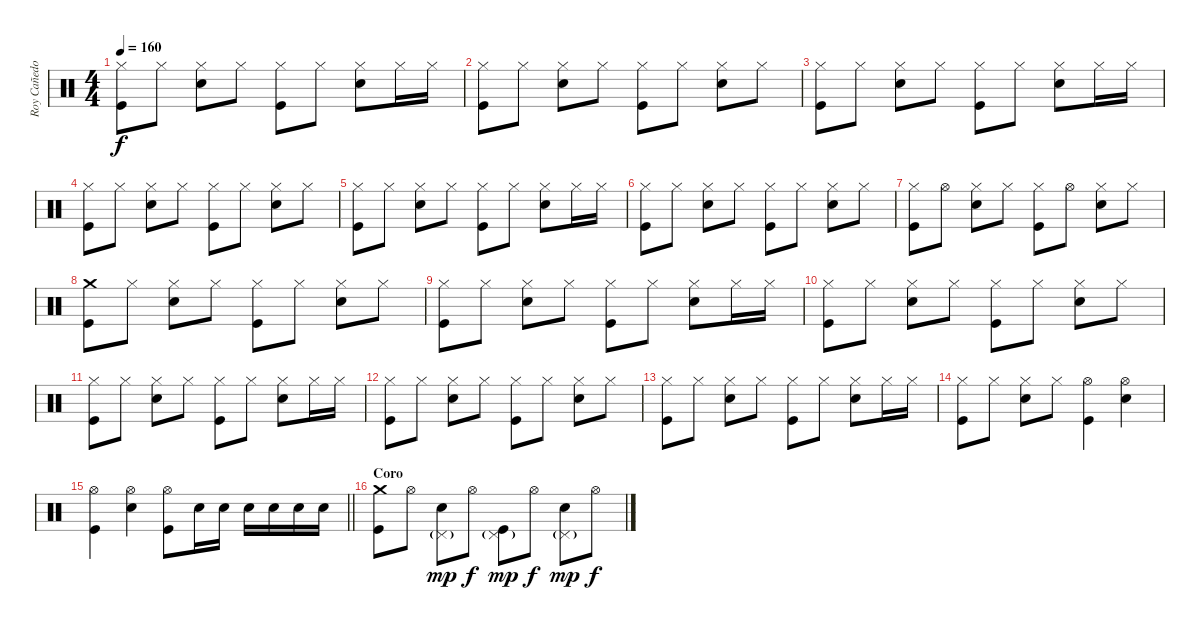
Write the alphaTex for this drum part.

\track ("Roy Cañedo" "Roy Cañedo") {instrument percussion}
\staff {score}
\articulation defaults
\ts (4 4)
\tempo 160
\clef neutral
\ks c
("Hi-Hat (closed)" "Kick (hit)").8{dy f} "Hi-Hat (closed)".8 ("Hi-Hat (closed)" "Snare (hit) 2").8 "Hi-Hat (closed)".8 ("Hi-Hat (closed)" "Kick (hit)").8 "Hi-Hat (closed)".8 ("Hi-Hat (closed)" "Snare (hit) 2").8 "Hi-Hat (closed)".16 "Hi-Hat (closed)".16 |
("Hi-Hat (closed)" "Kick (hit)").8 "Hi-Hat (closed)".8 ("Hi-Hat (closed)" "Snare (hit) 2").8 "Hi-Hat (closed)".8 ("Hi-Hat (closed)" "Kick (hit)").8 "Hi-Hat (closed)".8 ("Hi-Hat (closed)" "Snare (hit) 2").8 "Hi-Hat (closed)".8 |
("Hi-Hat (closed)" "Kick (hit)").8 "Hi-Hat (closed)".8 ("Hi-Hat (closed)" "Snare (hit) 2").8 "Hi-Hat (closed)".8 ("Hi-Hat (closed)" "Kick (hit)").8 "Hi-Hat (closed)".8 ("Hi-Hat (closed)" "Snare (hit) 2").8 "Hi-Hat (closed)".16 "Hi-Hat (closed)".16 |
("Hi-Hat (closed)" "Kick (hit)").8 "Hi-Hat (closed)".8 ("Hi-Hat (closed)" "Snare (hit) 2").8 "Hi-Hat (closed)".8 ("Hi-Hat (closed)" "Kick (hit)").8 "Hi-Hat (closed)".8 ("Hi-Hat (closed)" "Snare (hit) 2").8 "Hi-Hat (closed)".8 |
("Hi-Hat (closed)" "Kick (hit)").8 "Hi-Hat (closed)".8 ("Hi-Hat (closed)" "Snare (hit) 2").8 "Hi-Hat (closed)".8 ("Hi-Hat (closed)" "Kick (hit)").8 "Hi-Hat (closed)".8 ("Hi-Hat (closed)" "Snare (hit) 2").8 "Hi-Hat (closed)".16 "Hi-Hat (closed)".16 |
("Hi-Hat (closed)" "Kick (hit)").8 "Hi-Hat (closed)".8 ("Hi-Hat (closed)" "Snare (hit) 2").8 "Hi-Hat (closed)".8 ("Hi-Hat (closed)" "Kick (hit)").8 "Hi-Hat (closed)".8 ("Hi-Hat (closed)" "Snare (hit) 2").8 "Hi-Hat (closed)".8 |
("Hi-Hat (closed)" "Kick (hit)").8 "Hi-Hat (open)".8 ("Hi-Hat (closed)" "Snare (hit) 2").8 "Hi-Hat (closed)".8 ("Hi-Hat (closed)" "Kick (hit)").8 "Hi-Hat (open)".8 ("Hi-Hat (closed)" "Snare (hit) 2").8 "Hi-Hat (closed)".8 |
("Crash medium (hit)" "Kick (hit)").8 "Hi-Hat (closed)".8 ("Hi-Hat (closed)" "Snare (hit) 2").8 "Hi-Hat (closed)".8 ("Hi-Hat (closed)" "Kick (hit)").8 "Hi-Hat (closed)".8 ("Hi-Hat (closed)" "Snare (hit) 2").8 "Hi-Hat (closed)".8 |
("Hi-Hat (closed)" "Kick (hit)").8 "Hi-Hat (closed)".8 ("Hi-Hat (closed)" "Snare (hit) 2").8 "Hi-Hat (closed)".8 ("Hi-Hat (closed)" "Kick (hit)").8 "Hi-Hat (closed)".8 ("Hi-Hat (closed)" "Snare (hit) 2").8 "Hi-Hat (closed)".16 "Hi-Hat (closed)".16 |
("Hi-Hat (closed)" "Kick (hit)").8 "Hi-Hat (closed)".8 ("Hi-Hat (closed)" "Snare (hit) 2").8 "Hi-Hat (closed)".8 ("Hi-Hat (closed)" "Kick (hit)").8 "Hi-Hat (closed)".8 ("Hi-Hat (closed)" "Snare (hit) 2").8 "Hi-Hat (closed)".8 |
("Hi-Hat (closed)" "Kick (hit)").8 "Hi-Hat (closed)".8 ("Hi-Hat (closed)" "Snare (hit) 2").8 "Hi-Hat (closed)".8 ("Hi-Hat (closed)" "Kick (hit)").8 "Hi-Hat (closed)".8 ("Hi-Hat (closed)" "Snare (hit) 2").8 "Hi-Hat (closed)".16 "Hi-Hat (closed)".16 |
("Hi-Hat (closed)" "Kick (hit)").8 "Hi-Hat (closed)".8 ("Hi-Hat (closed)" "Snare (hit) 2").8 "Hi-Hat (closed)".8 ("Hi-Hat (closed)" "Kick (hit)").8 "Hi-Hat (closed)".8 ("Hi-Hat (closed)" "Snare (hit) 2").8 "Hi-Hat (closed)".8 |
("Hi-Hat (closed)" "Kick (hit)").8 "Hi-Hat (closed)".8 ("Hi-Hat (closed)" "Snare (hit) 2").8 "Hi-Hat (closed)".8 ("Hi-Hat (closed)" "Kick (hit)").8 "Hi-Hat (closed)".8 ("Hi-Hat (closed)" "Snare (hit) 2").8 "Hi-Hat (closed)".16 "Hi-Hat (closed)".16 |
("Hi-Hat (closed)" "Kick (hit)").8 "Hi-Hat (closed)".8 ("Hi-Hat (closed)" "Snare (hit) 2").8 "Hi-Hat (closed)".8 ("Hi-Hat (open)" "Kick (hit)").4 ("Hi-Hat (open)" "Snare (hit) 2").4 |
\barLineRight lightlight
("Hi-Hat (open)" "Kick (hit)").4 ("Hi-Hat (open)" "Snare (hit) 2").4 ("Hi-Hat (open)" "Kick (hit)").8 "Snare (hit) 2".16 "Snare (hit) 2".16 "Snare (hit) 2".16 "Snare (hit) 2".16 "Snare (hit) 2".16 "Snare (hit) 2".16 |
\section ("" "Coro")
("Crash medium (hit)" "Kick (hit)").8 "Hi-Hat (open)".8 ("Pedal Hi-Hat (hit)"{g} "Snare (hit) 2").8{dy mp} "Hi-Hat (open)".8{dy f} ("Pedal Hi-Hat (hit)"{g} "Kick (hit)").8{dy mp} "Hi-Hat (open)".8{dy f} ("Pedal Hi-Hat (hit)"{g} "Snare (hit) 2").8{dy mp} "Hi-Hat (open)".8{dy f}
